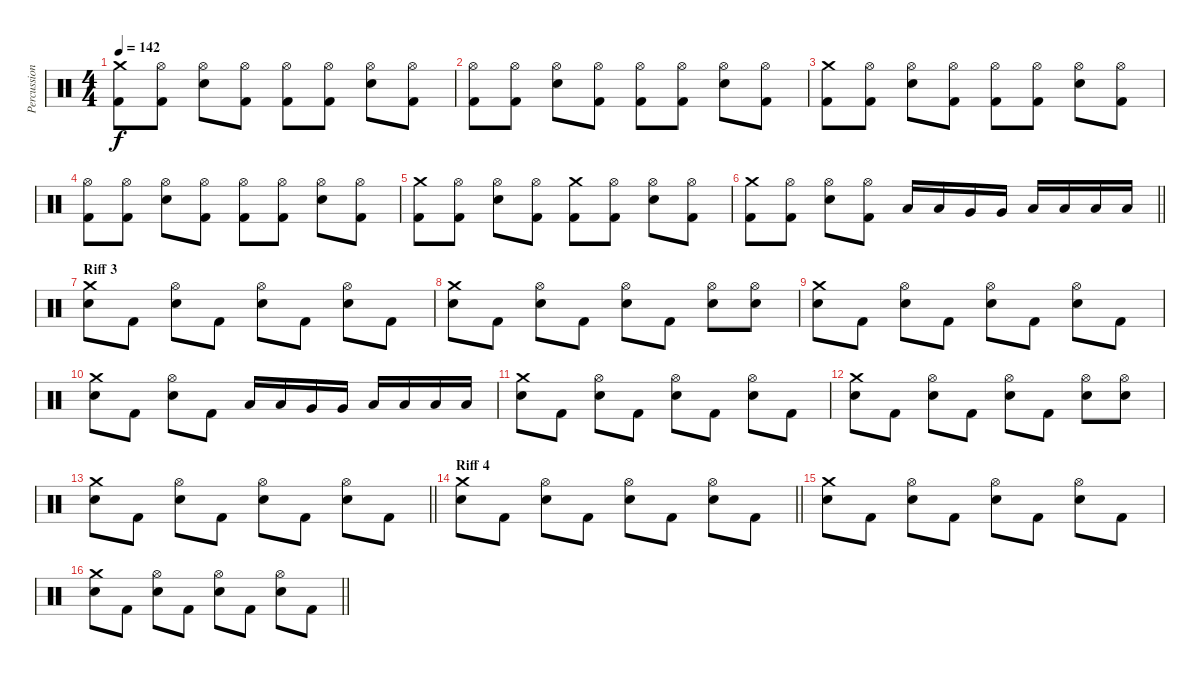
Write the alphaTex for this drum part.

\track ("Percussions" "Percussion") {instrument percussion}
\staff {score}
\articulation defaults
\ts (4 4)
\tempo 142
\clef neutral
\ks c
("Crash medium (hit)" "Kick (hit) 2").8{dy f} ("Hi-Hat (open)" "Kick (hit) 2").8 ("Hi-Hat (open)" "Electric Snare (hit)").8 ("Hi-Hat (open)" "Kick (hit) 2").8 ("Hi-Hat (open)" "Kick (hit) 2").8 ("Hi-Hat (open)" "Kick (hit) 2").8 ("Hi-Hat (open)" "Electric Snare (hit)").8 ("Hi-Hat (open)" "Kick (hit) 2").8 |
("Hi-Hat (open)" "Kick (hit) 2").8 ("Hi-Hat (open)" "Kick (hit) 2").8 ("Hi-Hat (open)" "Electric Snare (hit)").8 ("Hi-Hat (open)" "Kick (hit) 2").8 ("Hi-Hat (open)" "Kick (hit) 2").8 ("Hi-Hat (open)" "Kick (hit) 2").8 ("Hi-Hat (open)" "Electric Snare (hit)").8 ("Hi-Hat (open)" "Kick (hit) 2").8 |
("Crash medium (hit)" "Kick (hit) 2").8 ("Hi-Hat (open)" "Kick (hit) 2").8 ("Hi-Hat (open)" "Electric Snare (hit)").8 ("Hi-Hat (open)" "Kick (hit) 2").8 ("Hi-Hat (open)" "Kick (hit) 2").8 ("Hi-Hat (open)" "Kick (hit) 2").8 ("Hi-Hat (open)" "Electric Snare (hit)").8 ("Hi-Hat (open)" "Kick (hit) 2").8 |
("Hi-Hat (open)" "Kick (hit) 2").8 ("Hi-Hat (open)" "Kick (hit) 2").8 ("Hi-Hat (open)" "Electric Snare (hit)").8 ("Hi-Hat (open)" "Kick (hit) 2").8 ("Hi-Hat (open)" "Kick (hit) 2").8 ("Hi-Hat (open)" "Kick (hit) 2").8 ("Hi-Hat (open)" "Electric Snare (hit)").8 ("Hi-Hat (open)" "Kick (hit) 2").8 |
("Crash medium (hit)" "Kick (hit) 2").8 ("Hi-Hat (open)" "Kick (hit) 2").8 ("Hi-Hat (open)" "Electric Snare (hit)").8 ("Hi-Hat (open)" "Kick (hit) 2").8 ("Crash medium (hit)" "Kick (hit) 2").8 ("Hi-Hat (open)" "Kick (hit) 2").8 ("Hi-Hat (open)" "Electric Snare (hit)").8 ("Hi-Hat (open)" "Kick (hit) 2").8 |
\barLineRight lightlight
("Crash medium (hit)" "Kick (hit) 2").8 ("Hi-Hat (open)" "Kick (hit) 2").8 ("Hi-Hat (open)" "Electric Snare (hit)").8 ("Hi-Hat (open)" "Kick (hit) 2").8 "Low Tom (hit)".16 "Low Tom (hit)".16 "Very Low Tom (hit)".16 "Very Low Tom (hit)".16 "Low Floor Tom (hit)".16 "Low Floor Tom (hit)".16 "Low Floor Tom (hit)".16 "Low Floor Tom (hit)".16 |
\section ("" "Riff 3")
("Crash medium (hit)" "Electric Snare (hit)").8 "Kick (hit) 2".8 ("Hi-Hat (open)" "Electric Snare (hit)").8 "Kick (hit) 2".8 ("Hi-Hat (open)" "Electric Snare (hit)").8 "Kick (hit) 2".8 ("Hi-Hat (open)" "Electric Snare (hit)").8 "Kick (hit) 2".8 |
("Crash medium (hit)" "Electric Snare (hit)").8 "Kick (hit) 2".8 ("Hi-Hat (open)" "Electric Snare (hit)").8 "Kick (hit) 2".8 ("Hi-Hat (open)" "Electric Snare (hit)").8 "Kick (hit) 2".8 ("Hi-Hat (open)" "Electric Snare (hit)").8 ("Hi-Hat (open)" "Electric Snare (hit)").8 |
("Crash medium (hit)" "Electric Snare (hit)").8 "Kick (hit) 2".8 ("Hi-Hat (open)" "Electric Snare (hit)").8 "Kick (hit) 2".8 ("Hi-Hat (open)" "Electric Snare (hit)").8 "Kick (hit) 2".8 ("Hi-Hat (open)" "Electric Snare (hit)").8 "Kick (hit) 2".8 |
("Crash medium (hit)" "Electric Snare (hit)").8 "Kick (hit) 2".8 ("Hi-Hat (open)" "Electric Snare (hit)").8 "Kick (hit) 2".8 "Low Tom (hit)".16 "Low Tom (hit)".16 "Very Low Tom (hit)".16 "Very Low Tom (hit)".16 "Low Floor Tom (hit)".16 "Low Floor Tom (hit)".16 "Low Floor Tom (hit)".16 "Low Floor Tom (hit)".16 |
("Crash medium (hit)" "Electric Snare (hit)").8 "Kick (hit) 2".8 ("Hi-Hat (open)" "Electric Snare (hit)").8 "Kick (hit) 2".8 ("Hi-Hat (open)" "Electric Snare (hit)").8 "Kick (hit) 2".8 ("Hi-Hat (open)" "Electric Snare (hit)").8 "Kick (hit) 2".8 |
("Crash medium (hit)" "Electric Snare (hit)").8 "Kick (hit) 2".8 ("Hi-Hat (open)" "Electric Snare (hit)").8 "Kick (hit) 2".8 ("Hi-Hat (open)" "Electric Snare (hit)").8 "Kick (hit) 2".8 ("Hi-Hat (open)" "Electric Snare (hit)").8 ("Hi-Hat (open)" "Electric Snare (hit)").8 |
\barLineRight lightlight
("Crash medium (hit)" "Electric Snare (hit)").8 "Kick (hit) 2".8 ("Hi-Hat (open)" "Electric Snare (hit)").8 "Kick (hit) 2".8 ("Hi-Hat (open)" "Electric Snare (hit)").8 "Kick (hit) 2".8 ("Hi-Hat (open)" "Electric Snare (hit)").8 "Kick (hit) 2".8 |
\section ("" "Riff 4")
\barLineRight lightlight
("Crash medium (hit)" "Electric Snare (hit)").8 "Kick (hit) 2".8 ("Hi-Hat (open)" "Electric Snare (hit)").8 "Kick (hit) 2".8 ("Hi-Hat (open)" "Electric Snare (hit)").8 "Kick (hit) 2".8 ("Hi-Hat (open)" "Electric Snare (hit)").8 "Kick (hit) 2".8 |
("Crash medium (hit)" "Electric Snare (hit)").8 "Kick (hit) 2".8 ("Hi-Hat (open)" "Electric Snare (hit)").8 "Kick (hit) 2".8 ("Hi-Hat (open)" "Electric Snare (hit)").8 "Kick (hit) 2".8 ("Hi-Hat (open)" "Electric Snare (hit)").8 "Kick (hit) 2".8 |
\barLineRight lightlight
("Crash medium (hit)" "Electric Snare (hit)").8 "Kick (hit) 2".8 ("Hi-Hat (open)" "Electric Snare (hit)").8 "Kick (hit) 2".8 ("Hi-Hat (open)" "Electric Snare (hit)").8 "Kick (hit) 2".8 ("Hi-Hat (open)" "Electric Snare (hit)").8 "Kick (hit) 2".8
